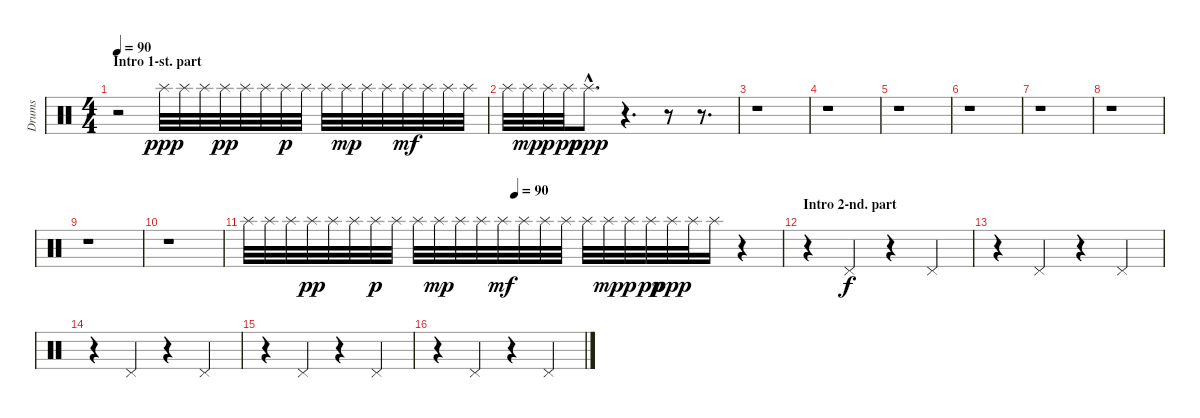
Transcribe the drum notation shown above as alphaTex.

\track ("Drums" "Drums") {instrument percussion}
\staff {score}
\articulation defaults
\ts (4 4)
\section ("" "Intro 1-st. part")
\tempo 90
\tempo 100
\tempo 90
\clef neutral
\ks c
r.2{dy ppp} "Splash (hit)".32 "Splash (hit)".32 "Splash (hit)".32 "Splash (hit)".32{dy pp} "Splash (hit)".32 "Splash (hit)".32 "Splash (hit)".32{dy p} "Splash (hit)".32 "Splash (hit)".32 "Splash (hit)".32{dy mp} "Splash (hit)".32 "Splash (hit)".32 "Splash (hit)".32{dy mf} "Splash (hit)".32 "Splash (hit)".32 "Splash (hit)".32 |
"Splash (hit)".32 "Splash (hit)".32{dy mp} "Splash (hit)".32{dy p} "Splash (hit)".32{dy pp} "Splash (hit)"{hac}.8{d dy ppp} r.4{d} r.8 r.8{d} |
r.1 |
r.1 |
r.1 |
r.1 |
r.1 |
r.1 |
r.1 |
r.1 |
\tempo (90 0.5)
"Splash (hit)".32 "Splash (hit)".32 "Splash (hit)".32 "Splash (hit)".32{dy pp} "Splash (hit)".32 "Splash (hit)".32 "Splash (hit)".32{dy p} "Splash (hit)".32 "Splash (hit)".32 "Splash (hit)".32{dy mp} "Splash (hit)".32 "Splash (hit)".32 "Splash (hit)".32{dy mf} "Splash (hit)".32 "Splash (hit)".32 "Splash (hit)".32 "Splash (hit)".32 "Splash (hit)".32{dy mp} "Splash (hit)".32{dy p} "Splash (hit)".32{dy pp} "Splash (hit)".32{dy ppp} "Splash (hit)".32 "Splash (hit)".16 r.4 |
\section ("" "Intro 2-nd. part")
r.4 "Pedal Hi-Hat (hit)".4{dy f} r.4 "Pedal Hi-Hat (hit)".4 |
r.4 "Pedal Hi-Hat (hit)".4 r.4 "Pedal Hi-Hat (hit)".4 |
r.4 "Pedal Hi-Hat (hit)".4 r.4 "Pedal Hi-Hat (hit)".4 |
r.4 "Pedal Hi-Hat (hit)".4 r.4 "Pedal Hi-Hat (hit)".4 |
r.4 "Pedal Hi-Hat (hit)".4 r.4 "Pedal Hi-Hat (hit)".4
